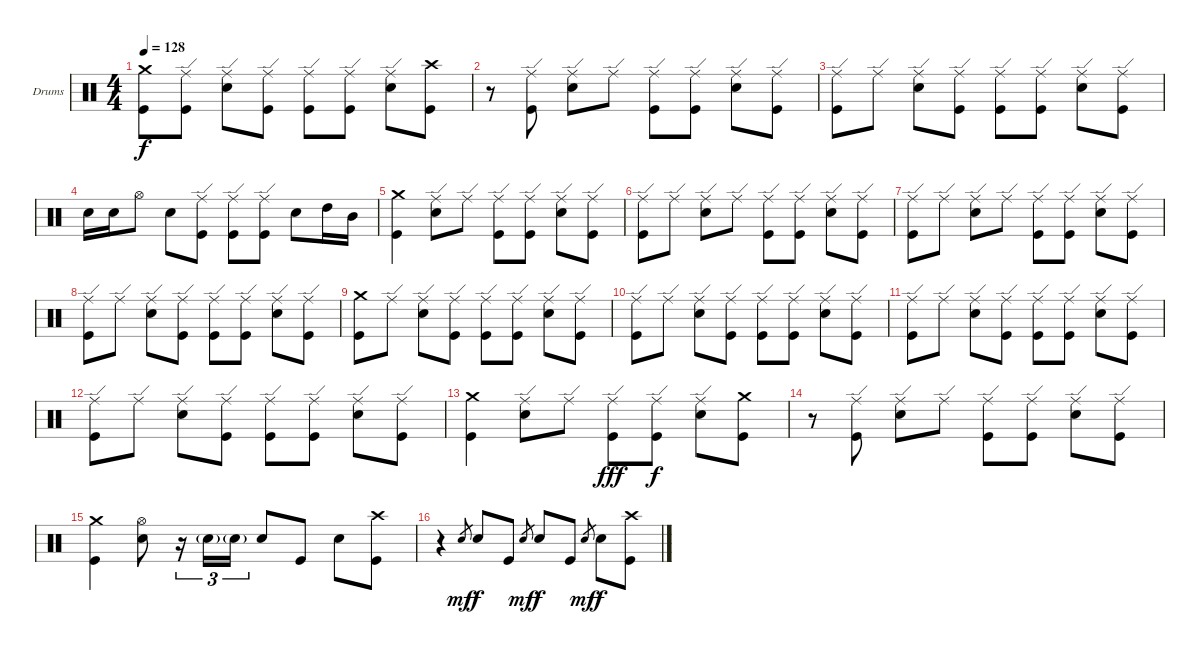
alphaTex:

\defaultSystemsLayout 4
\bracketExtendMode groupsimilarinstruments
\firstSystemTrackNameOrientation horizontal
\otherSystemsTrackNameOrientation horizontal
\track ("Drumkit" "Drums") {instrument percussion}
\staff {score}
\articulation defaults
\ts (4 4)
\tempo 128
\clef neutral
\ks c
("Crash medium (hit)" "Kick (hit)"{t}).8{dy f} ("Ride (edge)" "Kick (hit)").8 ("Ride (edge)" "Snare (hit) 2").8 ("Ride (edge)" "Kick (hit)").8 ("Ride (edge)" "Kick (hit)").8 ("Ride (edge)" "Kick (hit)").8 ("Ride (edge)" "Snare (hit) 2").8 ("Crash high (hit)" "Kick (hit)").8 |
r.8 ("Ride (edge)" "Kick (hit)").8 ("Ride (edge)" "Snare (hit) 2").8 "Ride (edge)".8 ("Ride (edge)" "Kick (hit)").8 ("Ride (edge)" "Kick (hit)").8 ("Ride (edge)" "Snare (hit) 2").8 ("Ride (edge)" "Kick (hit)").8 |
("Ride (edge)" "Kick (hit)").8 "Ride (edge)".8 ("Ride (edge)" "Snare (hit) 2").8 ("Ride (edge)" "Kick (hit)").8 ("Ride (edge)" "Kick (hit)").8 ("Ride (edge)" "Kick (hit)").8 ("Ride (edge)" "Snare (hit) 2").8 ("Ride (edge)" "Kick (hit)").8 |
"Snare (hit) 2".16 "Snare (hit) 2".16 "Hi-Hat (open)".8 "Snare (hit) 2".8 ("Ride (edge)" "Kick (hit)").8 ("Ride (edge)" "Kick (hit)").8 ("Ride (edge)" "Kick (hit)").8 "Snare (hit) 2".8 "High Tom (hit)".16 "Mid Tom (hit)".16 |
("Crash medium (hit)" "Kick (hit)").4 ("Ride (edge)" "Snare (hit) 2").8 "Ride (edge)".8 ("Ride (edge)" "Kick (hit)").8 ("Ride (edge)" "Kick (hit)").8 ("Ride (edge)" "Snare (hit) 2").8 ("Ride (edge)" "Kick (hit)").8 |
("Ride (edge)" "Kick (hit)").8 "Ride (edge)".8 ("Ride (edge)" "Snare (hit) 2").8 "Ride (edge)".8 ("Ride (edge)" "Kick (hit)").8 ("Ride (edge)" "Kick (hit)").8 ("Ride (edge)" "Snare (hit) 2").8 ("Ride (edge)" "Kick (hit)").8 |
("Ride (edge)" "Kick (hit)").8 "Ride (edge)".8 ("Ride (edge)" "Snare (hit) 2").8 "Ride (edge)".8 ("Ride (edge)" "Kick (hit)").8 ("Ride (edge)" "Kick (hit)").8 ("Ride (edge)" "Snare (hit) 2").8 ("Ride (edge)" "Kick (hit)").8 |
("Ride (edge)" "Kick (hit)").8 "Ride (edge)".8 ("Ride (edge)" "Snare (hit) 2").8 ("Ride (edge)" "Kick (hit)").8 ("Ride (edge)" "Kick (hit)").8 ("Ride (edge)" "Kick (hit)").8 ("Ride (edge)" "Snare (hit) 2").8 ("Ride (edge)" "Kick (hit)").8 |
("Crash medium (hit)" "Kick (hit)").8 "Ride (edge)".8 ("Ride (edge)" "Snare (hit) 2").8 ("Ride (edge)" "Kick (hit)").8 ("Ride (edge)" "Kick (hit)").8 ("Ride (edge)" "Kick (hit)").8 ("Ride (edge)" "Snare (hit) 2").8 ("Ride (edge)" "Kick (hit)").8 |
("Ride (edge)" "Kick (hit)").8 "Ride (edge)".8 ("Ride (edge)" "Snare (hit) 2").8 ("Ride (edge)" "Kick (hit)").8 ("Ride (edge)" "Kick (hit)").8 ("Ride (edge)" "Kick (hit)").8 ("Ride (edge)" "Snare (hit) 2").8 ("Ride (edge)" "Kick (hit)").8 |
("Ride (edge)" "Kick (hit)").8 "Ride (edge)".8 ("Ride (edge)" "Snare (hit) 2").8 ("Ride (edge)" "Kick (hit)").8 ("Ride (edge)" "Kick (hit)").8 ("Ride (edge)" "Kick (hit)").8 ("Ride (edge)" "Snare (hit) 2").8 ("Ride (edge)" "Kick (hit)").8 |
("Ride (edge)" "Kick (hit)").8 "Ride (edge)".8 ("Ride (edge)" "Snare (hit) 2").8 ("Ride (edge)" "Kick (hit)").8 ("Ride (edge)" "Kick (hit)").8 ("Ride (edge)" "Kick (hit)").8 ("Ride (edge)" "Snare (hit) 2").8 ("Ride (edge)" "Kick (hit)").8 |
("Crash medium (hit)" "Kick (hit)").4 ("Ride (edge)" "Snare (hit) 2").8 "Ride (edge)".8 ("Ride (edge)" "Kick (hit)").8{dy fff} ("Ride (edge)" "Kick (hit)").8{dy f} ("Ride (edge)" "Snare (hit) 2").8 ("Crash medium (hit)" "Kick (hit)").8 |
r.8 ("Ride (edge)" "Kick (hit)").8 ("Ride (edge)" "Snare (hit) 2").8 "Ride (edge)".8 ("Ride (edge)" "Kick (hit)").8 ("Ride (edge)" "Kick (hit)").8 ("Ride (edge)" "Snare (hit) 2").8 ("Ride (edge)" "Kick (hit)").8 |
("Crash medium (hit)" "Kick (hit)").4 ("Hi-Hat (open)" "Snare (hit) 2").8 r.16{tu (3 2)} "Snare (hit) 2"{g}.16{tu (3 2)} "Snare (hit) 2"{g}.16{tu (3 2)} "Snare (hit) 2".8 "Kick (hit)".8 "Snare (hit) 2".8 ("Crash high (hit)" "Kick (hit)").8 |
r.4 "Snare (hit) 2".8{gr dy mf} "Snare (hit) 2".8{dy f} "Kick (hit)".8 "Snare (hit) 2".8{gr dy mf} "Snare (hit) 2".8{dy f} "Kick (hit)".8 "Snare (hit) 2".8{gr dy mf} "Snare (hit) 2".8{dy f} ("Crash high (hit)" "Kick (hit)").8
